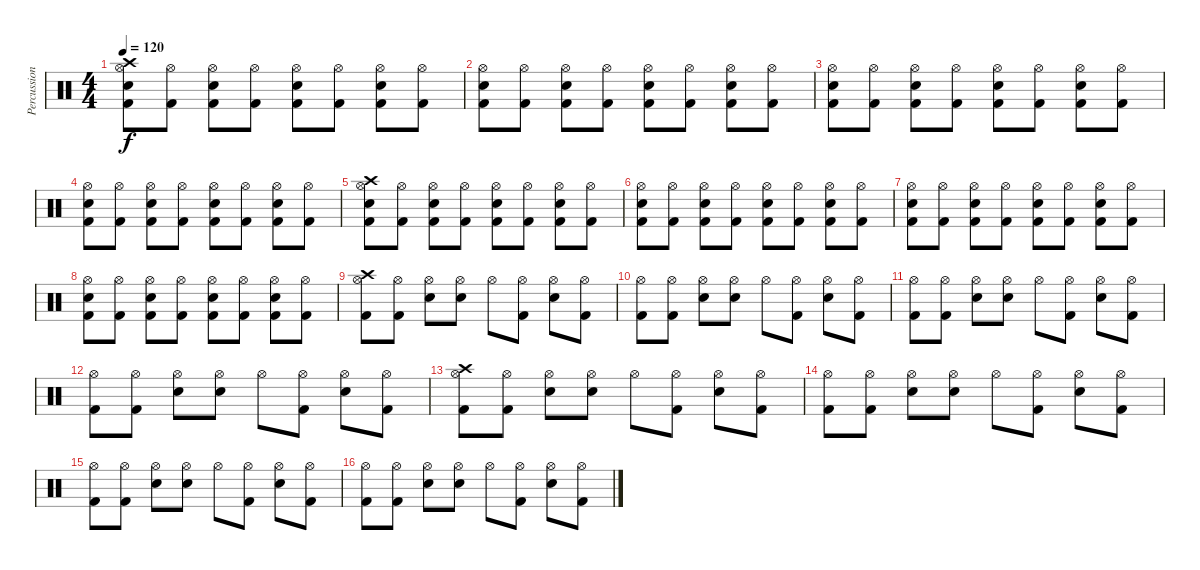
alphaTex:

\track ("Percussion" "Percussion") {instrument percussion}
\staff {score}
\articulation defaults
\ts (4 4)
\tempo 120
\clef neutral
\ks c
("Kick (hit) 2" "Electric Snare (hit)" "Hi-Hat (open)" "Crash high (hit)").8{dy f} ("Kick (hit) 2" "Hi-Hat (open)").8 ("Kick (hit) 2" "Electric Snare (hit)" "Hi-Hat (open)").8 ("Kick (hit) 2" "Hi-Hat (open)").8 ("Kick (hit) 2" "Electric Snare (hit)" "Hi-Hat (open)").8 ("Kick (hit) 2" "Hi-Hat (open)").8 ("Kick (hit) 2" "Electric Snare (hit)" "Hi-Hat (open)").8 ("Kick (hit) 2" "Hi-Hat (open)").8 |
("Kick (hit) 2" "Electric Snare (hit)" "Hi-Hat (open)").8 ("Kick (hit) 2" "Hi-Hat (open)").8 ("Kick (hit) 2" "Electric Snare (hit)" "Hi-Hat (open)").8 ("Kick (hit) 2" "Hi-Hat (open)").8 ("Kick (hit) 2" "Electric Snare (hit)" "Hi-Hat (open)").8 ("Kick (hit) 2" "Hi-Hat (open)").8 ("Kick (hit) 2" "Electric Snare (hit)" "Hi-Hat (open)").8 ("Kick (hit) 2" "Hi-Hat (open)").8 |
("Kick (hit) 2" "Electric Snare (hit)" "Hi-Hat (open)").8 ("Kick (hit) 2" "Hi-Hat (open)").8 ("Kick (hit) 2" "Electric Snare (hit)" "Hi-Hat (open)").8 ("Kick (hit) 2" "Hi-Hat (open)").8 ("Kick (hit) 2" "Electric Snare (hit)" "Hi-Hat (open)").8 ("Kick (hit) 2" "Hi-Hat (open)").8 ("Kick (hit) 2" "Electric Snare (hit)" "Hi-Hat (open)").8 ("Kick (hit) 2" "Hi-Hat (open)").8 |
("Kick (hit) 2" "Electric Snare (hit)" "Hi-Hat (open)").8 ("Kick (hit) 2" "Hi-Hat (open)").8 ("Kick (hit) 2" "Electric Snare (hit)" "Hi-Hat (open)").8 ("Kick (hit) 2" "Hi-Hat (open)").8 ("Kick (hit) 2" "Electric Snare (hit)" "Hi-Hat (open)").8 ("Kick (hit) 2" "Hi-Hat (open)").8 ("Kick (hit) 2" "Electric Snare (hit)" "Hi-Hat (open)").8 ("Kick (hit) 2" "Hi-Hat (open)").8 |
("Kick (hit) 2" "Electric Snare (hit)" "Hi-Hat (open)" "Crash high (hit)").8 ("Kick (hit) 2" "Hi-Hat (open)").8 ("Kick (hit) 2" "Electric Snare (hit)" "Hi-Hat (open)").8 ("Kick (hit) 2" "Hi-Hat (open)").8 ("Kick (hit) 2" "Electric Snare (hit)" "Hi-Hat (open)").8 ("Kick (hit) 2" "Hi-Hat (open)").8 ("Kick (hit) 2" "Electric Snare (hit)" "Hi-Hat (open)").8 ("Kick (hit) 2" "Hi-Hat (open)").8 |
("Kick (hit) 2" "Electric Snare (hit)" "Hi-Hat (open)").8 ("Kick (hit) 2" "Hi-Hat (open)").8 ("Kick (hit) 2" "Electric Snare (hit)" "Hi-Hat (open)").8 ("Kick (hit) 2" "Hi-Hat (open)").8 ("Kick (hit) 2" "Electric Snare (hit)" "Hi-Hat (open)").8 ("Kick (hit) 2" "Hi-Hat (open)").8 ("Kick (hit) 2" "Electric Snare (hit)" "Hi-Hat (open)").8 ("Kick (hit) 2" "Hi-Hat (open)").8 |
("Kick (hit) 2" "Electric Snare (hit)" "Hi-Hat (open)").8 ("Kick (hit) 2" "Hi-Hat (open)").8 ("Kick (hit) 2" "Electric Snare (hit)" "Hi-Hat (open)").8 ("Kick (hit) 2" "Hi-Hat (open)").8 ("Kick (hit) 2" "Electric Snare (hit)" "Hi-Hat (open)").8 ("Kick (hit) 2" "Hi-Hat (open)").8 ("Kick (hit) 2" "Electric Snare (hit)" "Hi-Hat (open)").8 ("Kick (hit) 2" "Hi-Hat (open)").8 |
("Kick (hit) 2" "Electric Snare (hit)" "Hi-Hat (open)").8 ("Kick (hit) 2" "Hi-Hat (open)").8 ("Kick (hit) 2" "Electric Snare (hit)" "Hi-Hat (open)").8 ("Kick (hit) 2" "Hi-Hat (open)").8 ("Kick (hit) 2" "Electric Snare (hit)" "Hi-Hat (open)").8 ("Kick (hit) 2" "Hi-Hat (open)").8 ("Kick (hit) 2" "Electric Snare (hit)" "Hi-Hat (open)").8 ("Kick (hit) 2" "Hi-Hat (open)").8 |
("Kick (hit) 2" "Hi-Hat (open)" "Crash high (hit)").8 ("Kick (hit) 2" "Hi-Hat (open)").8 ("Electric Snare (hit)" "Hi-Hat (open)").8 ("Electric Snare (hit)" "Hi-Hat (open)").8 "Hi-Hat (open)".8 ("Kick (hit) 2" "Hi-Hat (open)").8 ("Electric Snare (hit)" "Hi-Hat (open)").8 ("Kick (hit) 2" "Hi-Hat (open)").8 |
("Kick (hit) 2" "Hi-Hat (open)").8 ("Kick (hit) 2" "Hi-Hat (open)").8 ("Electric Snare (hit)" "Hi-Hat (open)").8 ("Electric Snare (hit)" "Hi-Hat (open)").8 "Hi-Hat (open)".8 ("Kick (hit) 2" "Hi-Hat (open)").8 ("Electric Snare (hit)" "Hi-Hat (open)").8 ("Kick (hit) 2" "Hi-Hat (open)").8 |
("Kick (hit) 2" "Hi-Hat (open)").8 ("Kick (hit) 2" "Hi-Hat (open)").8 ("Electric Snare (hit)" "Hi-Hat (open)").8 ("Electric Snare (hit)" "Hi-Hat (open)").8 "Hi-Hat (open)".8 ("Kick (hit) 2" "Hi-Hat (open)").8 ("Electric Snare (hit)" "Hi-Hat (open)").8 ("Kick (hit) 2" "Hi-Hat (open)").8 |
("Kick (hit) 2" "Hi-Hat (open)").8 ("Kick (hit) 2" "Hi-Hat (open)").8 ("Electric Snare (hit)" "Hi-Hat (open)").8 ("Electric Snare (hit)" "Hi-Hat (open)").8 "Hi-Hat (open)".8 ("Kick (hit) 2" "Hi-Hat (open)").8 ("Electric Snare (hit)" "Hi-Hat (open)").8 ("Kick (hit) 2" "Hi-Hat (open)").8 |
("Kick (hit) 2" "Hi-Hat (open)" "Crash high (hit)").8 ("Kick (hit) 2" "Hi-Hat (open)").8 ("Electric Snare (hit)" "Hi-Hat (open)").8 ("Electric Snare (hit)" "Hi-Hat (open)").8 "Hi-Hat (open)".8 ("Kick (hit) 2" "Hi-Hat (open)").8 ("Electric Snare (hit)" "Hi-Hat (open)").8 ("Kick (hit) 2" "Hi-Hat (open)").8 |
("Kick (hit) 2" "Hi-Hat (open)").8 ("Kick (hit) 2" "Hi-Hat (open)").8 ("Electric Snare (hit)" "Hi-Hat (open)").8 ("Electric Snare (hit)" "Hi-Hat (open)").8 "Hi-Hat (open)".8 ("Kick (hit) 2" "Hi-Hat (open)").8 ("Electric Snare (hit)" "Hi-Hat (open)").8 ("Kick (hit) 2" "Hi-Hat (open)").8 |
("Kick (hit) 2" "Hi-Hat (open)").8 ("Kick (hit) 2" "Hi-Hat (open)").8 ("Electric Snare (hit)" "Hi-Hat (open)").8 ("Electric Snare (hit)" "Hi-Hat (open)").8 "Hi-Hat (open)".8 ("Kick (hit) 2" "Hi-Hat (open)").8 ("Electric Snare (hit)" "Hi-Hat (open)").8 ("Kick (hit) 2" "Hi-Hat (open)").8 |
("Kick (hit) 2" "Hi-Hat (open)").8 ("Kick (hit) 2" "Hi-Hat (open)").8 ("Electric Snare (hit)" "Hi-Hat (open)").8 ("Electric Snare (hit)" "Hi-Hat (open)").8 "Hi-Hat (open)".8 ("Kick (hit) 2" "Hi-Hat (open)").8 ("Electric Snare (hit)" "Hi-Hat (open)").8 ("Kick (hit) 2" "Hi-Hat (open)").8
